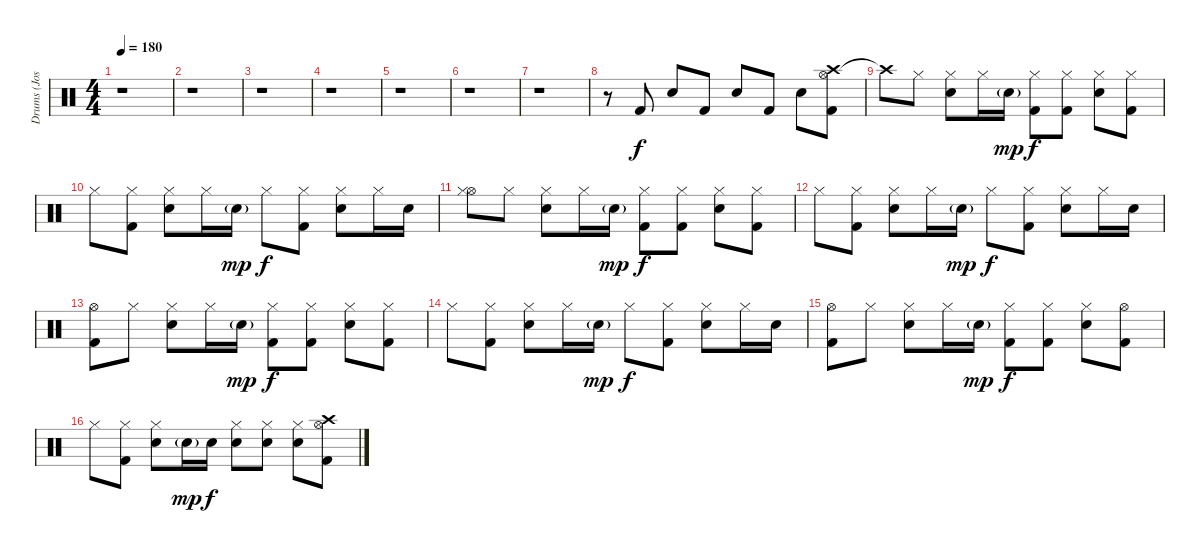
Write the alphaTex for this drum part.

\track ("Drums (Jose Pasilas II)" "Drums (Jos") {instrument percussion}
\staff {score}
\articulation defaults
\ts (4 4)
\tempo 180
\clef neutral
\ks c
r.1{dy f} |
r.1 |
r.1 |
r.1 |
r.1 |
r.1 |
r.1 |
r.8 "Kick (hit) 2".8 "Snare (hit) 2".8 "Kick (hit) 2".8 "Snare (hit) 2".8 "Kick (hit) 2".8 "Snare (hit) 2".8 ("Hi-Hat (open)" "Kick (hit) 2" "Crash high (hit)").8 |
"Crash high (hit)"{t}.8 "Hi-Hat (closed)".8 ("Hi-Hat (closed)" "Snare (hit) 2").8 "Hi-Hat (closed)".16 "Snare (hit) 2"{g}.16{dy mp} ("Kick (hit) 2" "Hi-Hat (closed)").8{dy f} ("Hi-Hat (closed)" "Kick (hit) 2").8 ("Snare (hit) 2" "Hi-Hat (closed)").8 ("Kick (hit) 2" "Hi-Hat (closed)").8 |
"Hi-Hat (closed)".8 ("Kick (hit) 2" "Hi-Hat (closed)").8 ("Snare (hit) 2" "Hi-Hat (closed)").8 "Hi-Hat (closed)".16 "Snare (hit) 2"{g}.16{dy mp} "Hi-Hat (closed)".8{dy f} ("Hi-Hat (closed)" "Kick (hit) 2").8 ("Snare (hit) 2" "Hi-Hat (closed)").8 "Hi-Hat (closed)".16 "Snare (hit) 2".16 |
("Hi-Hat (open)" "Hi-Hat (closed)").8 "Hi-Hat (closed)".8 ("Hi-Hat (closed)" "Snare (hit) 2").8 "Hi-Hat (closed)".16 "Snare (hit) 2"{g}.16{dy mp} ("Kick (hit) 2" "Hi-Hat (closed)").8{dy f} ("Hi-Hat (closed)" "Kick (hit) 2").8 ("Snare (hit) 2" "Hi-Hat (closed)").8 ("Kick (hit) 2" "Hi-Hat (closed)").8 |
"Hi-Hat (closed)".8 ("Kick (hit) 2" "Hi-Hat (closed)").8 ("Snare (hit) 2" "Hi-Hat (closed)").8 "Hi-Hat (closed)".16 "Snare (hit) 2"{g}.16{dy mp} "Hi-Hat (closed)".8{dy f} ("Hi-Hat (closed)" "Kick (hit) 2").8 ("Snare (hit) 2" "Hi-Hat (closed)").8 "Hi-Hat (closed)".16 "Snare (hit) 2".16 |
("Hi-Hat (open)" "Kick (hit) 2").8 "Hi-Hat (closed)".8 ("Hi-Hat (closed)" "Snare (hit) 2").8 "Hi-Hat (closed)".16 "Snare (hit) 2"{g}.16{dy mp} ("Kick (hit) 2" "Hi-Hat (closed)").8{dy f} ("Hi-Hat (closed)" "Kick (hit) 2").8 ("Snare (hit) 2" "Hi-Hat (closed)").8 ("Kick (hit) 2" "Hi-Hat (closed)").8 |
"Hi-Hat (closed)".8 ("Kick (hit) 2" "Hi-Hat (closed)").8 ("Snare (hit) 2" "Hi-Hat (closed)").8 "Hi-Hat (closed)".16 "Snare (hit) 2"{g}.16{dy mp} "Hi-Hat (closed)".8{dy f} ("Hi-Hat (closed)" "Kick (hit) 2").8 ("Snare (hit) 2" "Hi-Hat (closed)").8 "Hi-Hat (closed)".16 "Snare (hit) 2".16 |
("Hi-Hat (open)" "Kick (hit) 2").8 "Hi-Hat (closed)".8 ("Hi-Hat (closed)" "Snare (hit) 2").8 "Hi-Hat (closed)".16 "Snare (hit) 2"{g}.16{dy mp} ("Kick (hit) 2" "Hi-Hat (closed)").8{dy f} ("Hi-Hat (closed)" "Kick (hit) 2").8 ("Snare (hit) 2" "Hi-Hat (closed)").8 ("Kick (hit) 2" "Hi-Hat (open)").8 |
"Hi-Hat (closed)".8 ("Kick (hit) 2" "Hi-Hat (closed)").8 ("Snare (hit) 2" "Hi-Hat (closed)").8 "Snare (hit) 2"{g}.16{dy mp} "Snare (hit) 2".16{dy f} ("Snare (hit) 2" "Hi-Hat (closed)").8 ("Snare (hit) 2" "Hi-Hat (closed)").8 ("Snare (hit) 2" "Hi-Hat (closed)").8 ("Hi-Hat (open)" "Kick (hit) 2" "Crash high (hit)").8
